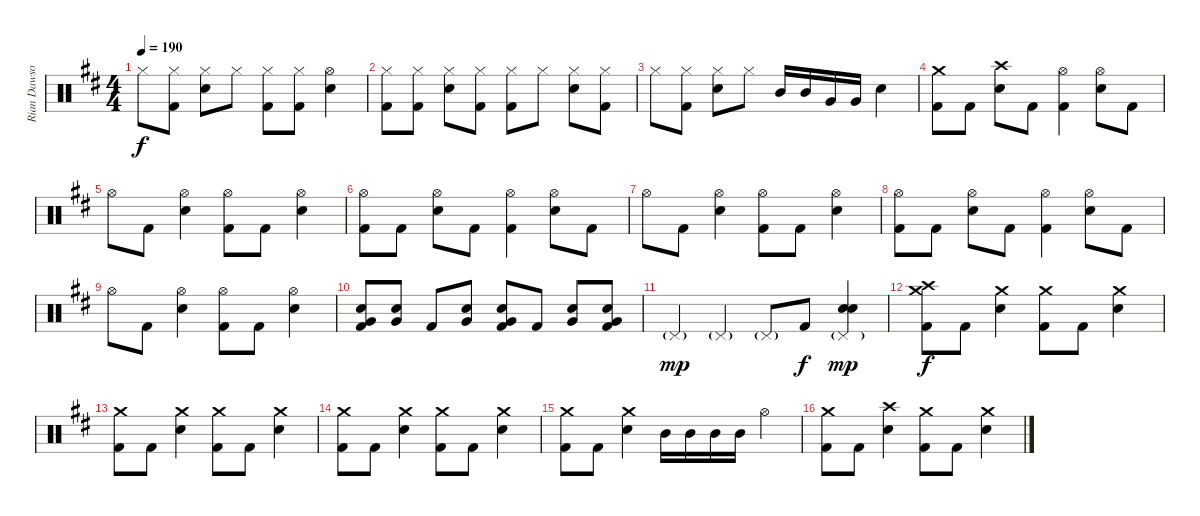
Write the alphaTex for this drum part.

\track ("Rian Dawson" "Rian Dawso") {instrument percussion}
\staff {score}
\articulation defaults
\ts (4 4)
\tempo 190
\clef neutral
\ks d "Hi-Hat (closed)".8{dy f}
("Hi-Hat (closed)" "Kick (hit) 2").8 ("Hi-Hat (closed)" "Electric Snare (hit)").8 "Hi-Hat (closed)".8 ("Hi-Hat (closed)" "Kick (hit) 2").8 ("Hi-Hat (closed)" "Kick (hit) 2").8 ("Hi-Hat (open)" "Electric Snare (hit)").4 |
("Hi-Hat (closed)" "Kick (hit) 2").8 ("Hi-Hat (closed)" "Kick (hit) 2").8 ("Hi-Hat (closed)" "Electric Snare (hit)").8 ("Hi-Hat (closed)" "Kick (hit) 2").8 ("Hi-Hat (closed)" "Kick (hit) 2").8 "Hi-Hat (closed)".8 ("Hi-Hat (closed)" "Electric Snare (hit)").8 ("Hi-Hat (closed)" "Kick (hit) 2").8 |
"Hi-Hat (closed)".8 ("Hi-Hat (closed)" "Kick (hit) 2").8 ("Hi-Hat (closed)" "Electric Snare (hit)").8 "Hi-Hat (closed)".8 "Mid Tom (hit)".16 "Mid Tom (hit)".16 "Very Low Tom (hit)".16 "Very Low Tom (hit)".16 "Electric Snare (hit)".4 |
("Crash medium (hit)" "Kick (hit) 2").8 "Kick (hit) 2".8 ("Crash high (hit)" "Electric Snare (hit)").8 "Kick (hit) 2".8 ("Hi-Hat (open)" "Kick (hit) 2").4 ("Hi-Hat (open)" "Electric Snare (hit)").8 "Kick (hit) 2".8 |
"Hi-Hat (open)".8 "Kick (hit) 2".8 ("Hi-Hat (open)" "Electric Snare (hit)").4 ("Hi-Hat (open)" "Kick (hit) 2").8 "Kick (hit) 2".8 ("Hi-Hat (open)" "Electric Snare (hit)").4 |
("Hi-Hat (open)" "Kick (hit) 2").8 "Kick (hit) 2".8 ("Hi-Hat (open)" "Electric Snare (hit)").8 "Kick (hit) 2".8 ("Hi-Hat (open)" "Kick (hit) 2").4 ("Hi-Hat (open)" "Electric Snare (hit)").8 "Kick (hit) 2".8 |
"Hi-Hat (open)".8 "Kick (hit) 2".8 ("Hi-Hat (open)" "Electric Snare (hit)").4 ("Hi-Hat (open)" "Kick (hit) 2").8 "Kick (hit) 2".8 ("Hi-Hat (open)" "Electric Snare (hit)").4 |
("Hi-Hat (open)" "Kick (hit) 2").8 "Kick (hit) 2".8 ("Hi-Hat (open)" "Electric Snare (hit)").8 "Kick (hit) 2".8 ("Hi-Hat (open)" "Kick (hit) 2").4 ("Hi-Hat (open)" "Electric Snare (hit)").8 "Kick (hit) 2".8 |
"Hi-Hat (open)".8 "Kick (hit) 2".8 ("Hi-Hat (open)" "Electric Snare (hit)").4 ("Hi-Hat (open)" "Kick (hit) 2").8 "Kick (hit) 2".8 ("Hi-Hat (open)" "Electric Snare (hit)").4 |
("Very Low Tom (hit)" "Electric Snare (hit)" "Kick (hit) 2").8 ("Very Low Tom (hit)" "Electric Snare (hit)").8 "Kick (hit) 2".8 ("Very Low Tom (hit)" "Electric Snare (hit)").8 ("Very Low Tom (hit)" "Electric Snare (hit)" "Kick (hit) 2").8 "Kick (hit) 2".8 ("Very Low Tom (hit)" "Electric Snare (hit)").8 ("Very Low Tom (hit)" "Electric Snare (hit)" "Kick (hit) 2").8 |
"Pedal Hi-Hat (hit)"{g}.4{dy mp} "Pedal Hi-Hat (hit)"{g}.4 "Pedal Hi-Hat (hit)"{g}.8 "Kick (hit) 2".8{dy f} ("Pedal Hi-Hat (hit)"{g} "Electric Snare (hit)" "Electric Snare (hit)").4{dy mp} |
("Crash high (hit)" "Crash medium (hit)" "Kick (hit) 2").8{dy f} "Kick (hit) 2".8 ("Crash medium (hit)" "Electric Snare (hit)").4 ("Crash medium (hit)" "Kick (hit) 2").8 "Kick (hit) 2".8 ("Crash medium (hit)" "Electric Snare (hit)").4 |
("Crash medium (hit)" "Kick (hit) 2").8 "Kick (hit) 2".8 ("Crash medium (hit)" "Electric Snare (hit)").4 ("Crash medium (hit)" "Kick (hit) 2").8 "Kick (hit) 2".8 ("Crash medium (hit)" "Electric Snare (hit)").4 |
("Crash medium (hit)" "Kick (hit) 2").8 "Kick (hit) 2".8 ("Crash medium (hit)" "Electric Snare (hit)").4 ("Crash medium (hit)" "Kick (hit) 2").8 "Kick (hit) 2".8 ("Crash medium (hit)" "Electric Snare (hit)").4 |
("Crash medium (hit)" "Kick (hit) 2").8 "Kick (hit) 2".8 ("Crash medium (hit)" "Electric Snare (hit)").4 "Mid Tom (hit)".16 "Mid Tom (hit)".16 "Mid Tom (hit)".16 "Mid Tom (hit)".16 "Hi-Hat (open)".4 |
("Crash medium (hit)" "Kick (hit) 2").8 "Kick (hit) 2".8 ("Crash high (hit)" "Electric Snare (hit)").4 ("Crash medium (hit)" "Kick (hit) 2").8 "Kick (hit) 2".8 ("Crash medium (hit)" "Electric Snare (hit)").4
